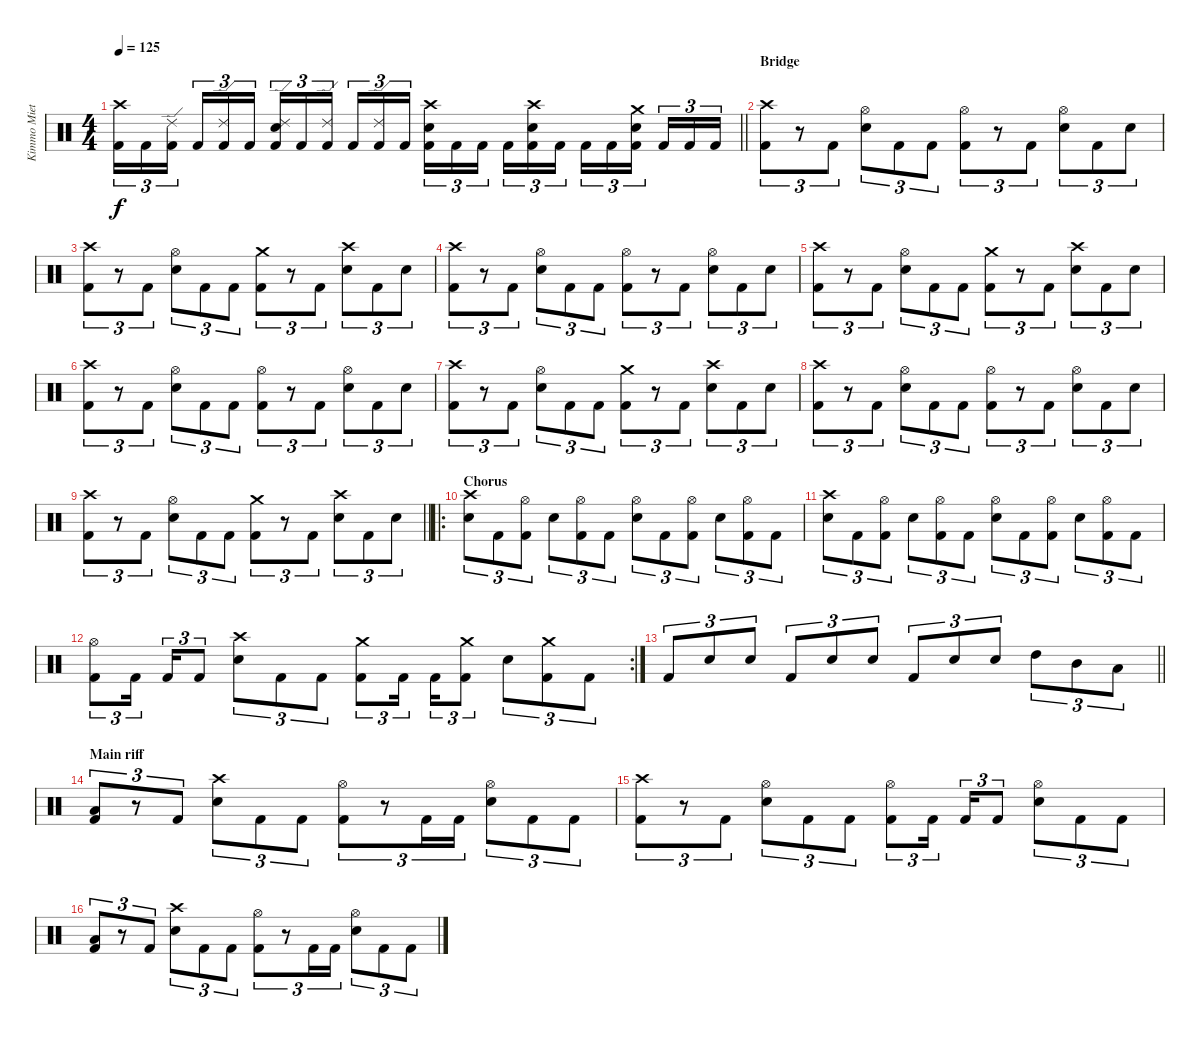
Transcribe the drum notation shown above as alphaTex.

\track ("Kimmo Miettinen" "Kimmo Miet") {instrument percussion}
\staff {score}
\articulation defaults
\ts (4 4)
\tempo 125
\clef neutral
\barLineRight lightlight
\ks c
("Crash high (hit)" "Kick (hit) 2").16{tu (3 2) dy f} "Kick (hit) 2".16{tu (3 2)} ("Ride (edge) 2" "Kick (hit) 2").16{tu (3 2) beam splitsecondary} "Kick (hit) 2".16{tu (3 2)} ("Ride (edge) 2" "Kick (hit) 2").16{tu (3 2)} "Kick (hit) 2".16{tu (3 2)} ("Ride (edge) 2" "Electric Snare (hit)" "Kick (hit) 2").16{tu (3 2)} "Kick (hit) 2".16{tu (3 2)} ("Ride (edge) 2" "Kick (hit) 2").16{tu (3 2) beam splitsecondary} "Kick (hit) 2".16{tu (3 2)} ("Ride (edge) 2" "Kick (hit) 2").16{tu (3 2)} "Kick (hit) 2".16{tu (3 2)} ("Crash high (hit)" "Electric Snare (hit)" "Kick (hit) 2").16{tu (3 2)} "Kick (hit) 2".16{tu (3 2)} "Kick (hit) 2".16{tu (3 2) beam splitsecondary} "Kick (hit) 2".16{tu (3 2)} ("Crash high (hit)" "Electric Snare (hit)" "Kick (hit) 2").16{tu (3 2)} "Kick (hit) 2".16{tu (3 2)} "Kick (hit) 2".16{tu (3 2)} "Kick (hit) 2".16{tu (3 2)} ("Crash medium (hit)" "Electric Snare (hit)" "Kick (hit) 2").16{tu (3 2) beam splitsecondary} "Kick (hit) 2".16{tu (3 2)} "Kick (hit) 2".16{tu (3 2)} "Kick (hit) 2".16{tu (3 2)} |
\section ("" "Bridge")
("Crash high (hit)" "Kick (hit) 2").8{tu (3 2)} r.8{tu (3 2)} "Kick (hit) 2".8{tu (3 2)} ("Hi-Hat (open)" "Electric Snare (hit)").8{tu (3 2)} "Kick (hit) 2".8{tu (3 2)} "Kick (hit) 2".8{tu (3 2)} ("Hi-Hat (open)" "Kick (hit) 2").8{tu (3 2)} r.8{tu (3 2)} "Kick (hit) 2".8{tu (3 2)} ("Hi-Hat (open)" "Electric Snare (hit)").8{tu (3 2)} "Kick (hit) 2".8{tu (3 2)} "Electric Snare (hit)".8{tu (3 2)} |
("Crash high (hit)" "Kick (hit) 2").8{tu (3 2)} r.8{tu (3 2)} "Kick (hit) 2".8{tu (3 2)} ("Hi-Hat (open)" "Electric Snare (hit)").8{tu (3 2)} "Kick (hit) 2".8{tu (3 2)} "Kick (hit) 2".8{tu (3 2)} ("Crash medium (hit)" "Kick (hit) 2").8{tu (3 2)} r.8{tu (3 2)} "Kick (hit) 2".8{tu (3 2)} ("Crash high (hit)" "Electric Snare (hit)").8{tu (3 2)} "Kick (hit) 2".8{tu (3 2)} "Electric Snare (hit)".8{tu (3 2)} |
("Crash high (hit)" "Kick (hit) 2").8{tu (3 2)} r.8{tu (3 2)} "Kick (hit) 2".8{tu (3 2)} ("Hi-Hat (open)" "Electric Snare (hit)").8{tu (3 2)} "Kick (hit) 2".8{tu (3 2)} "Kick (hit) 2".8{tu (3 2)} ("Hi-Hat (open)" "Kick (hit) 2").8{tu (3 2)} r.8{tu (3 2)} "Kick (hit) 2".8{tu (3 2)} ("Hi-Hat (open)" "Electric Snare (hit)").8{tu (3 2)} "Kick (hit) 2".8{tu (3 2)} "Electric Snare (hit)".8{tu (3 2)} |
("Crash high (hit)" "Kick (hit) 2").8{tu (3 2)} r.8{tu (3 2)} "Kick (hit) 2".8{tu (3 2)} ("Hi-Hat (open)" "Electric Snare (hit)").8{tu (3 2)} "Kick (hit) 2".8{tu (3 2)} "Kick (hit) 2".8{tu (3 2)} ("Crash medium (hit)" "Kick (hit) 2").8{tu (3 2)} r.8{tu (3 2)} "Kick (hit) 2".8{tu (3 2)} ("Crash high (hit)" "Electric Snare (hit)").8{tu (3 2)} "Kick (hit) 2".8{tu (3 2)} "Electric Snare (hit)".8{tu (3 2)} |
("Crash high (hit)" "Kick (hit) 2").8{tu (3 2)} r.8{tu (3 2)} "Kick (hit) 2".8{tu (3 2)} ("Hi-Hat (open)" "Electric Snare (hit)").8{tu (3 2)} "Kick (hit) 2".8{tu (3 2)} "Kick (hit) 2".8{tu (3 2)} ("Hi-Hat (open)" "Kick (hit) 2").8{tu (3 2)} r.8{tu (3 2)} "Kick (hit) 2".8{tu (3 2)} ("Hi-Hat (open)" "Electric Snare (hit)").8{tu (3 2)} "Kick (hit) 2".8{tu (3 2)} "Electric Snare (hit)".8{tu (3 2)} |
("Crash high (hit)" "Kick (hit) 2").8{tu (3 2)} r.8{tu (3 2)} "Kick (hit) 2".8{tu (3 2)} ("Hi-Hat (open)" "Electric Snare (hit)").8{tu (3 2)} "Kick (hit) 2".8{tu (3 2)} "Kick (hit) 2".8{tu (3 2)} ("Crash medium (hit)" "Kick (hit) 2").8{tu (3 2)} r.8{tu (3 2)} "Kick (hit) 2".8{tu (3 2)} ("Crash high (hit)" "Electric Snare (hit)").8{tu (3 2)} "Kick (hit) 2".8{tu (3 2)} "Electric Snare (hit)".8{tu (3 2)} |
("Crash high (hit)" "Kick (hit) 2").8{tu (3 2)} r.8{tu (3 2)} "Kick (hit) 2".8{tu (3 2)} ("Hi-Hat (open)" "Electric Snare (hit)").8{tu (3 2)} "Kick (hit) 2".8{tu (3 2)} "Kick (hit) 2".8{tu (3 2)} ("Hi-Hat (open)" "Kick (hit) 2").8{tu (3 2)} r.8{tu (3 2)} "Kick (hit) 2".8{tu (3 2)} ("Hi-Hat (open)" "Electric Snare (hit)").8{tu (3 2)} "Kick (hit) 2".8{tu (3 2)} "Electric Snare (hit)".8{tu (3 2)} |
\barLineRight lightlight
("Crash high (hit)" "Kick (hit) 2").8{tu (3 2)} r.8{tu (3 2)} "Kick (hit) 2".8{tu (3 2)} ("Hi-Hat (open)" "Electric Snare (hit)").8{tu (3 2)} "Kick (hit) 2".8{tu (3 2)} "Kick (hit) 2".8{tu (3 2)} ("Crash medium (hit)" "Kick (hit) 2").8{tu (3 2)} r.8{tu (3 2)} "Kick (hit) 2".8{tu (3 2)} ("Crash high (hit)" "Electric Snare (hit)").8{tu (3 2)} "Kick (hit) 2".8{tu (3 2)} "Electric Snare (hit)".8{tu (3 2)} |
\ro
\section ("" "Chorus")
("Crash high (hit)" "Electric Snare (hit)").8{tu (3 2)} "Kick (hit) 2".8{tu (3 2)} ("Hi-Hat (open)" "Kick (hit) 2").8{tu (3 2)} "Electric Snare (hit)".8{tu (3 2)} ("Hi-Hat (open)" "Kick (hit) 2").8{tu (3 2)} "Kick (hit) 2".8{tu (3 2)} ("Hi-Hat (open)" "Electric Snare (hit)").8{tu (3 2)} "Kick (hit) 2".8{tu (3 2)} ("Hi-Hat (open)" "Kick (hit) 2").8{tu (3 2)} "Electric Snare (hit)".8{tu (3 2)} ("Hi-Hat (open)" "Kick (hit) 2").8{tu (3 2)} "Kick (hit) 2".8{tu (3 2)} |
("Crash high (hit)" "Electric Snare (hit)").8{tu (3 2)} "Kick (hit) 2".8{tu (3 2)} ("Hi-Hat (open)" "Kick (hit) 2").8{tu (3 2)} "Electric Snare (hit)".8{tu (3 2)} ("Hi-Hat (open)" "Kick (hit) 2").8{tu (3 2)} "Kick (hit) 2".8{tu (3 2)} ("Hi-Hat (open)" "Electric Snare (hit)").8{tu (3 2)} "Kick (hit) 2".8{tu (3 2)} ("Hi-Hat (open)" "Kick (hit) 2").8{tu (3 2)} "Electric Snare (hit)".8{tu (3 2)} ("Hi-Hat (open)" "Kick (hit) 2").8{tu (3 2)} "Kick (hit) 2".8{tu (3 2)} |
\rc 2
("Hi-Hat (open)" "Kick (hit) 2").8{tu (3 2)} "Kick (hit) 2".16{tu (3 2) beam splitsecondary} "Kick (hit) 2".16{tu (3 2)} "Kick (hit) 2".8{tu (3 2)} ("Crash high (hit)" "Electric Snare (hit)").8{tu (3 2)} "Kick (hit) 2".8{tu (3 2)} "Kick (hit) 2".8{tu (3 2)} ("Crash medium (hit)" "Kick (hit) 2").8{tu (3 2)} "Kick (hit) 2".16{tu (3 2) beam splitsecondary} "Kick (hit) 2".16{tu (3 2)} ("Crash medium (hit)" "Kick (hit) 2").8{tu (3 2)} "Electric Snare (hit)".8{tu (3 2)} ("Crash medium (hit)" "Kick (hit) 2").8{tu (3 2)} "Kick (hit) 2".8{tu (3 2)} |
\barLineRight lightlight "Kick (hit) 2".8{tu (3 2)} "Electric Snare (hit)".8{tu (3 2)} "Electric Snare (hit)".8{tu (3 2)} "Kick (hit) 2".8{tu (3 2)} "Electric Snare (hit)".8{tu (3 2)} "Electric Snare (hit)".8{tu (3 2)} "Kick (hit) 2".8{tu (3 2)} "Electric Snare (hit)".8{tu (3 2)} "Electric Snare (hit)".8{tu (3 2)} "High Tom (hit)".8{tu (3 2)} "Mid Tom (hit)".8{tu (3 2)} "Low Tom (hit)".8{tu (3 2)}
|
\section ("" "Main riff")
("Low Floor Tom (hit)" "Kick (hit) 2").8{tu (3 2)} r.8{tu (3 2)} "Kick (hit) 2".8{tu (3 2)} ("Crash high (hit)" "Electric Snare (hit)").8{tu (3 2)} "Kick (hit) 2".8{tu (3 2)} "Kick (hit) 2".8{tu (3 2)} ("Hi-Hat (open)" "Kick (hit) 2").8{tu (3 2)} r.8{tu (3 2)} "Kick (hit) 2".16{tu (3 2)} "Kick (hit) 2".16{tu (3 2)} ("Hi-Hat (open)" "Electric Snare (hit)").8{tu (3 2)} "Kick (hit) 2".8{tu (3 2)} "Kick (hit) 2".8{tu (3 2)} |
("Crash high (hit)" "Kick (hit) 2").8{tu (3 2)} r.8{tu (3 2)} "Kick (hit) 2".8{tu (3 2)} ("Hi-Hat (open)" "Electric Snare (hit)").8{tu (3 2)} "Kick (hit) 2".8{tu (3 2)} "Kick (hit) 2".8{tu (3 2)} ("Hi-Hat (open)" "Kick (hit) 2").8{tu (3 2)} "Kick (hit) 2".16{tu (3 2) beam splitsecondary} "Kick (hit) 2".16{tu (3 2)} "Kick (hit) 2".8{tu (3 2)} ("Hi-Hat (open)" "Electric Snare (hit)").8{tu (3 2)} "Kick (hit) 2".8{tu (3 2)} "Kick (hit) 2".8{tu (3 2)} |
("Low Floor Tom (hit)" "Kick (hit) 2").8{tu (3 2)} r.8{tu (3 2)} "Kick (hit) 2".8{tu (3 2)} ("Crash high (hit)" "Electric Snare (hit)").8{tu (3 2)} "Kick (hit) 2".8{tu (3 2)} "Kick (hit) 2".8{tu (3 2)} ("Hi-Hat (open)" "Kick (hit) 2").8{tu (3 2)} r.8{tu (3 2)} "Kick (hit) 2".16{tu (3 2)} "Kick (hit) 2".16{tu (3 2)} ("Hi-Hat (open)" "Electric Snare (hit)").8{tu (3 2)} "Kick (hit) 2".8{tu (3 2)} "Kick (hit) 2".8{tu (3 2)}
